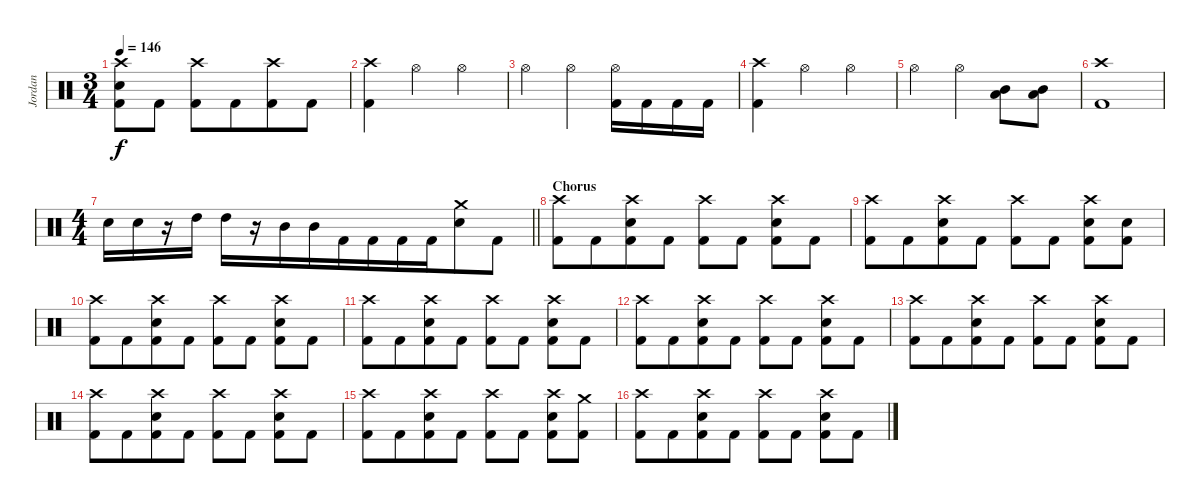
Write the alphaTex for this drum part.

\track ("Jordan" "Jordan") {instrument percussion}
\staff {score}
\articulation defaults
\ts (3 4)
\tempo 146
\clef neutral
\ks c
("Crash high (hit)" "Snare (hit) 2" "Kick (hit) 2").8{dy f} "Kick (hit) 2".8 ("Crash high (hit)" "Kick (hit) 2").8 "Kick (hit) 2".8{beam merge} ("Crash high (hit)" "Kick (hit) 2").8 "Kick (hit) 2".8 |
("Crash high (hit)" "Kick (hit) 2").4 "Hi-Hat (open)".4 "Hi-Hat (open)".4 |
"Hi-Hat (open)".4 "Hi-Hat (open)".4{beam merge} ("Hi-Hat (open)" "Kick (hit) 2").16 "Kick (hit) 2".16{beam merge} "Kick (hit) 2".16 "Kick (hit) 2".16 |
("Crash high (hit)" "Kick (hit) 2").4 "Hi-Hat (open)".4 "Hi-Hat (open)".4 |
"Hi-Hat (open)".4 "Hi-Hat (open)".4{beam merge} ("Mid Tom (hit)" "Low Tom (hit)").8 ("Mid Tom (hit)" "Low Tom (hit)").8 |
("Crash high (hit)" "Kick (hit) 2").1 |
\ts (4 4)
\barLineRight lightlight "Snare (hit) 2".16 "Snare (hit) 2".16
r.16{beam merge} "High Tom (hit)".16 "High Tom (hit)".16{beam merge} r.16{beam merge} "Mid Tom (hit)".16 "Mid Tom (hit)".16{beam merge} "Kick (hit) 2".16 "Kick (hit) 2".16{beam merge} "Kick (hit) 2".16{beam merge} "Kick (hit) 2".16{beam merge} ("Crash medium (hit)" "Snare (hit) 2").8{beam merge} "Kick (hit) 2".8 |
\section ("" "Chorus")
("Crash high (hit)" "Kick (hit) 2").8{beam merge} "Kick (hit) 2".8{beam merge} ("Crash high (hit)" "Snare (hit) 2" "Kick (hit) 2").8{beam merge} "Kick (hit) 2".8 ("Crash high (hit)" "Kick (hit) 2").8 "Kick (hit) 2".8 ("Crash high (hit)" "Snare (hit) 2" "Kick (hit) 2").8{beam merge} "Kick (hit) 2".8 |
("Crash high (hit)" "Kick (hit) 2").8{beam merge} "Kick (hit) 2".8{beam merge} ("Crash high (hit)" "Snare (hit) 2" "Kick (hit) 2").8{beam merge} "Kick (hit) 2".8 ("Crash high (hit)" "Kick (hit) 2").8 "Kick (hit) 2".8 ("Crash high (hit)" "Snare (hit) 2" "Kick (hit) 2").8{beam merge} ("Snare (hit) 2" "Kick (hit) 2").8 |
("Crash high (hit)" "Kick (hit) 2").8{beam merge} "Kick (hit) 2".8{beam merge} ("Crash high (hit)" "Snare (hit) 2" "Kick (hit) 2").8{beam merge} "Kick (hit) 2".8 ("Crash high (hit)" "Kick (hit) 2").8 "Kick (hit) 2".8 ("Crash high (hit)" "Snare (hit) 2" "Kick (hit) 2").8{beam merge} "Kick (hit) 2".8 |
("Crash high (hit)" "Kick (hit) 2").8{beam merge} "Kick (hit) 2".8{beam merge} ("Crash high (hit)" "Snare (hit) 2" "Kick (hit) 2").8{beam merge} "Kick (hit) 2".8 ("Crash high (hit)" "Kick (hit) 2").8 "Kick (hit) 2".8 ("Crash high (hit)" "Snare (hit) 2" "Kick (hit) 2").8{beam merge} "Kick (hit) 2".8 |
("Crash high (hit)" "Kick (hit) 2").8{beam merge} "Kick (hit) 2".8{beam merge} ("Crash high (hit)" "Snare (hit) 2" "Kick (hit) 2").8{beam merge} "Kick (hit) 2".8 ("Crash high (hit)" "Kick (hit) 2").8 "Kick (hit) 2".8 ("Crash high (hit)" "Snare (hit) 2" "Kick (hit) 2").8{beam merge} "Kick (hit) 2".8 |
("Crash high (hit)" "Kick (hit) 2").8{beam merge} "Kick (hit) 2".8{beam merge} ("Crash high (hit)" "Snare (hit) 2" "Kick (hit) 2").8{beam merge} "Kick (hit) 2".8 ("Crash high (hit)" "Kick (hit) 2").8 "Kick (hit) 2".8 ("Crash high (hit)" "Snare (hit) 2" "Kick (hit) 2").8{beam merge} "Kick (hit) 2".8 |
("Crash high (hit)" "Kick (hit) 2").8{beam merge} "Kick (hit) 2".8{beam merge} ("Crash high (hit)" "Snare (hit) 2" "Kick (hit) 2").8{beam merge} "Kick (hit) 2".8 ("Crash high (hit)" "Kick (hit) 2").8 "Kick (hit) 2".8 ("Crash high (hit)" "Snare (hit) 2" "Kick (hit) 2").8{beam merge} "Kick (hit) 2".8 |
("Crash high (hit)" "Kick (hit) 2").8{beam merge} "Kick (hit) 2".8{beam merge} ("Crash high (hit)" "Snare (hit) 2" "Kick (hit) 2").8{beam merge} "Kick (hit) 2".8 ("Crash high (hit)" "Kick (hit) 2").8 "Kick (hit) 2".8 ("Crash high (hit)" "Snare (hit) 2" "Kick (hit) 2").8{beam merge} ("Crash medium (hit)" "Kick (hit) 2").8 |
("Crash high (hit)" "Kick (hit) 2").8{beam merge} "Kick (hit) 2".8{beam merge} ("Crash high (hit)" "Snare (hit) 2" "Kick (hit) 2").8{beam merge} "Kick (hit) 2".8 ("Crash high (hit)" "Kick (hit) 2").8 "Kick (hit) 2".8 ("Crash high (hit)" "Snare (hit) 2" "Kick (hit) 2").8{beam merge} "Kick (hit) 2".8
